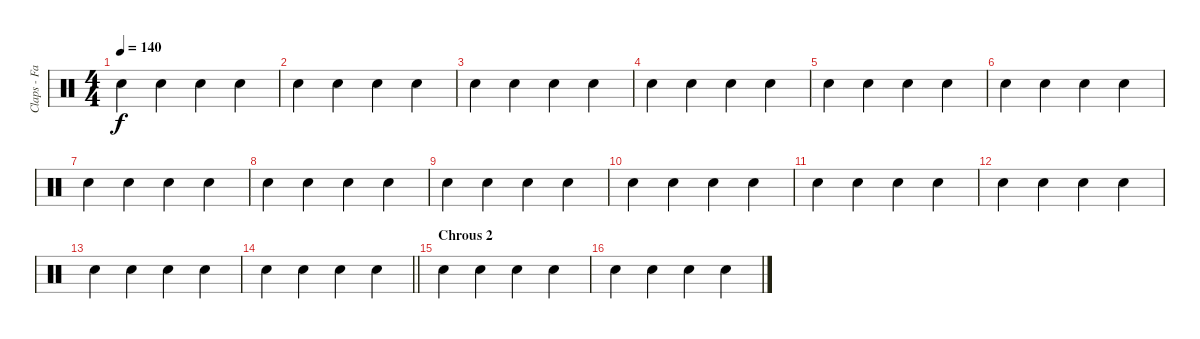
\track ("Claps - Fans" "Claps - Fa") {instrument percussion}
\staff {score}
\articulation defaults
\ts (4 4)
\tempo 140
\clef neutral
\ks c "Hand Clap (hit)".4{dy f} "Hand Clap (hit)".4 "Hand Clap (hit)".4 "Hand Clap (hit)".4
|
"Hand Clap (hit)".4 "Hand Clap (hit)".4 "Hand Clap (hit)".4 "Hand Clap (hit)".4 |
"Hand Clap (hit)".4 "Hand Clap (hit)".4 "Hand Clap (hit)".4 "Hand Clap (hit)".4 |
"Hand Clap (hit)".4 "Hand Clap (hit)".4 "Hand Clap (hit)".4 "Hand Clap (hit)".4 |
"Hand Clap (hit)".4 "Hand Clap (hit)".4 "Hand Clap (hit)".4 "Hand Clap (hit)".4 |
"Hand Clap (hit)".4 "Hand Clap (hit)".4 "Hand Clap (hit)".4 "Hand Clap (hit)".4 |
"Hand Clap (hit)".4 "Hand Clap (hit)".4 "Hand Clap (hit)".4 "Hand Clap (hit)".4 |
"Hand Clap (hit)".4 "Hand Clap (hit)".4 "Hand Clap (hit)".4 "Hand Clap (hit)".4 |
"Hand Clap (hit)".4 "Hand Clap (hit)".4 "Hand Clap (hit)".4 "Hand Clap (hit)".4 |
"Hand Clap (hit)".4 "Hand Clap (hit)".4 "Hand Clap (hit)".4 "Hand Clap (hit)".4 |
"Hand Clap (hit)".4 "Hand Clap (hit)".4 "Hand Clap (hit)".4 "Hand Clap (hit)".4 |
"Hand Clap (hit)".4 "Hand Clap (hit)".4 "Hand Clap (hit)".4 "Hand Clap (hit)".4 |
"Hand Clap (hit)".4 "Hand Clap (hit)".4 "Hand Clap (hit)".4 "Hand Clap (hit)".4 |
\barLineRight lightlight "Hand Clap (hit)".4 "Hand Clap (hit)".4 "Hand Clap (hit)".4 "Hand Clap (hit)".4
|
\section ("" "Chrous 2")
"Hand Clap (hit)".4 "Hand Clap (hit)".4 "Hand Clap (hit)".4 "Hand Clap (hit)".4 |
"Hand Clap (hit)".4 "Hand Clap (hit)".4 "Hand Clap (hit)".4 "Hand Clap (hit)".4
